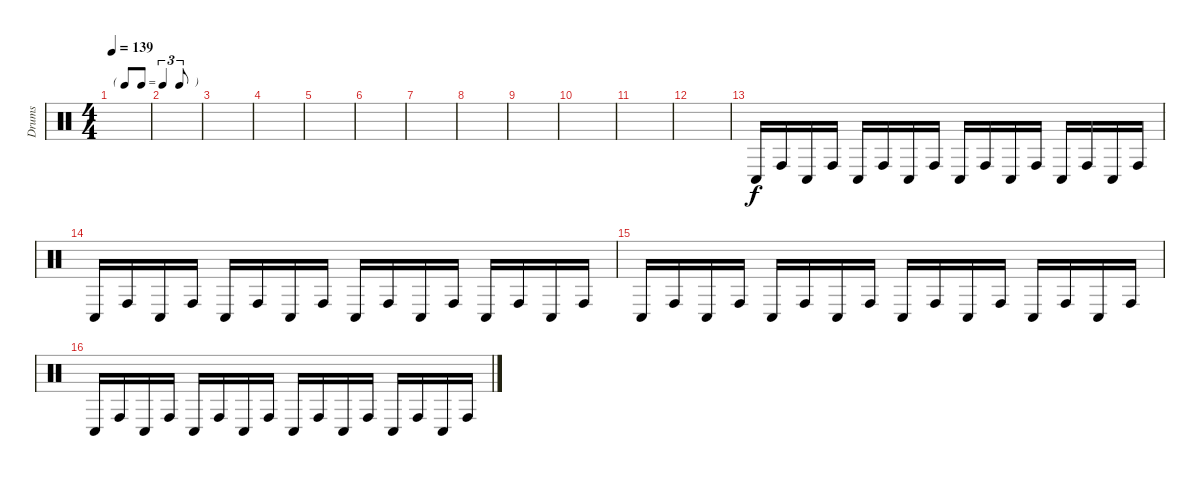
\track ("Drums" "Drums") {instrument percussion}
\staff {score}
\articulation defaults
\ts (4 4)
\tf triplet8th
\tempo 139
\clef neutral
\ks c
|
|
|
|
|
|
|
|
|
|
|
|
"Conga low (hit)".16{volume 10} "Conga high (hit)".16 "Conga low (hit)".16 "Conga high (hit)".16 "Conga low (hit)".16 "Conga high (hit)".16 "Conga low (hit)".16 "Conga high (hit)".16 "Conga low (hit)".16 "Conga high (hit)".16 "Conga low (hit)".16 "Conga high (hit)".16 "Conga low (hit)".16 "Conga high (hit)".16 "Conga low (hit)".16 "Conga high (hit)".16 |
"Conga low (hit)".16 "Conga high (hit)".16 "Conga low (hit)".16 "Conga high (hit)".16 "Conga low (hit)".16 "Conga high (hit)".16 "Conga low (hit)".16 "Conga high (hit)".16 "Conga low (hit)".16 "Conga high (hit)".16 "Conga low (hit)".16 "Conga high (hit)".16 "Conga low (hit)".16 "Conga high (hit)".16 "Conga low (hit)".16 "Conga high (hit)".16 |
"Conga low (hit)".16 "Conga high (hit)".16 "Conga low (hit)".16 "Conga high (hit)".16 "Conga low (hit)".16 "Conga high (hit)".16 "Conga low (hit)".16 "Conga high (hit)".16 "Conga low (hit)".16 "Conga high (hit)".16 "Conga low (hit)".16 "Conga high (hit)".16 "Conga low (hit)".16 "Conga high (hit)".16 "Conga low (hit)".16 "Conga high (hit)".16 |
"Conga low (hit)".16 "Conga high (hit)".16 "Conga low (hit)".16 "Conga high (hit)".16 "Conga low (hit)".16 "Conga high (hit)".16 "Conga low (hit)".16 "Conga high (hit)".16 "Conga low (hit)".16 "Conga high (hit)".16 "Conga low (hit)".16 "Conga high (hit)".16 "Conga low (hit)".16 "Conga high (hit)".16 "Conga low (hit)".16 "Conga high (hit)".16
